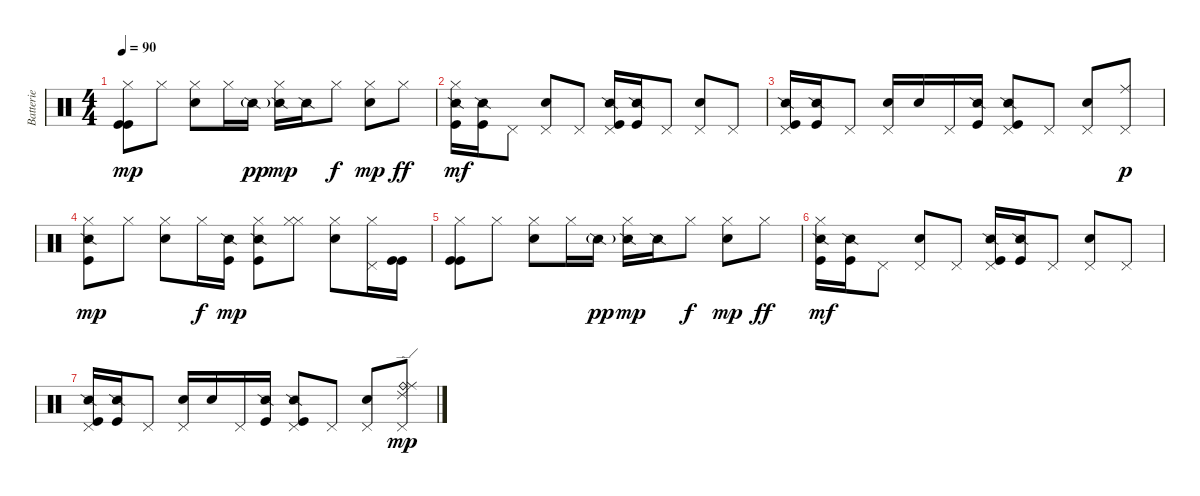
\track ("Batterie" "Batterie") {instrument percussion}
\staff {score}
\articulation defaults
\ts (4 4)
\tempo 90
\clef neutral
\ks c
("Hi-Hat (closed)" "Kick (hit)" "Kick (hit)").8{dy mp} "Hi-Hat (closed)".8 ("Hi-Hat (closed)" "Electric Snare (hit)").8 "Hi-Hat (closed)".16 "Snare (side stick) 2"{g}.16{dy pp} ("Hi-Hat (closed)" "Snare (side stick) 2").16{dy mp} "Snare (side stick) 2".16 "Hi-Hat (closed)".8{dy f} ("Hi-Hat (closed)" "Electric Snare (hit)").8{dy mp} "Hi-Hat (closed)".8{dy ff} |
("Hi-Hat (closed)" "Snare (side stick) 2" "Kick (hit)").16{dy mf} ("Snare (side stick) 2" "Kick (hit)").16 "Pedal Hi-Hat (hit)".8 ("Pedal Hi-Hat (hit)" "Electric Snare (hit)").8 "Pedal Hi-Hat (hit)".8 ("Pedal Hi-Hat (hit)" "Snare (side stick) 2" "Kick (hit)").16 ("Snare (side stick) 2" "Kick (hit)").16 "Pedal Hi-Hat (hit)".8 ("Pedal Hi-Hat (hit)" "Electric Snare (hit)").8 "Pedal Hi-Hat (hit)".8 |
("Pedal Hi-Hat (hit)" "Snare (side stick) 2" "Kick (hit)").16 ("Snare (side stick) 2" "Kick (hit)").16 "Pedal Hi-Hat (hit)".8 ("Pedal Hi-Hat (hit)" "Electric Snare (hit)").16 "Electric Snare (hit)".16 "Pedal Hi-Hat (hit)".16 ("Snare (side stick) 2" "Kick (hit)").16 ("Pedal Hi-Hat (hit)" "Snare (side stick) 2" "Kick (hit)").8 "Pedal Hi-Hat (hit)".8 ("Pedal Hi-Hat (hit)" "Electric Snare (hit)").8 ("Pedal Hi-Hat (hit)" "Ride (middle)").8{dy p} |
("Hi-Hat (closed)" "Snare (side stick) 2" "Kick (hit)").8{dy mp} "Hi-Hat (closed)".8 ("Hi-Hat (closed)" "Electric Snare (hit)").8 "Hi-Hat (closed)".16{dy f} ("Snare (side stick) 2" "Kick (hit)").16{dy mp} ("Hi-Hat (closed)" "Snare (side stick) 2" "Kick (hit)").8 ("Hi-Hat (closed)" "Hi-Hat (closed)").8 ("Hi-Hat (closed)" "Electric Snare (hit)").8 ("Hi-Hat (closed)" "Pedal Hi-Hat (hit)").16 ("Kick (hit)" "Kick (hit)").16 |
("Hi-Hat (closed)" "Kick (hit)" "Kick (hit)").8 "Hi-Hat (closed)".8 ("Hi-Hat (closed)" "Electric Snare (hit)").8 "Hi-Hat (closed)".16 "Snare (side stick) 2"{g}.16{dy pp} ("Hi-Hat (closed)" "Snare (side stick) 2").16{dy mp} "Snare (side stick) 2".16 "Hi-Hat (closed)".8{dy f} ("Hi-Hat (closed)" "Electric Snare (hit)").8{dy mp} "Hi-Hat (closed)".8{dy ff} |
("Hi-Hat (closed)" "Snare (side stick) 2" "Kick (hit)").16{dy mf} ("Snare (side stick) 2" "Kick (hit)").16 "Pedal Hi-Hat (hit)".8 ("Pedal Hi-Hat (hit)" "Electric Snare (hit)").8 "Pedal Hi-Hat (hit)".8 ("Pedal Hi-Hat (hit)" "Snare (side stick) 2" "Kick (hit)").16 ("Snare (side stick) 2" "Kick (hit)").16 "Pedal Hi-Hat (hit)".8 ("Pedal Hi-Hat (hit)" "Electric Snare (hit)").8 "Pedal Hi-Hat (hit)".8 |
("Pedal Hi-Hat (hit)" "Snare (side stick) 2" "Kick (hit)").16 ("Snare (side stick) 2" "Kick (hit)").16 "Pedal Hi-Hat (hit)".8 ("Pedal Hi-Hat (hit)" "Electric Snare (hit)").16 "Electric Snare (hit)".16 "Pedal Hi-Hat (hit)".16 ("Snare (side stick) 2" "Kick (hit)").16 ("Pedal Hi-Hat (hit)" "Snare (side stick) 2" "Kick (hit)").8 "Pedal Hi-Hat (hit)".8 ("Pedal Hi-Hat (hit)" "Electric Snare (hit)").8 ("Pedal Hi-Hat (hit)" "Ride (edge) 2" "Ride (bell)" "Ride (middle)").8{dy mp}
